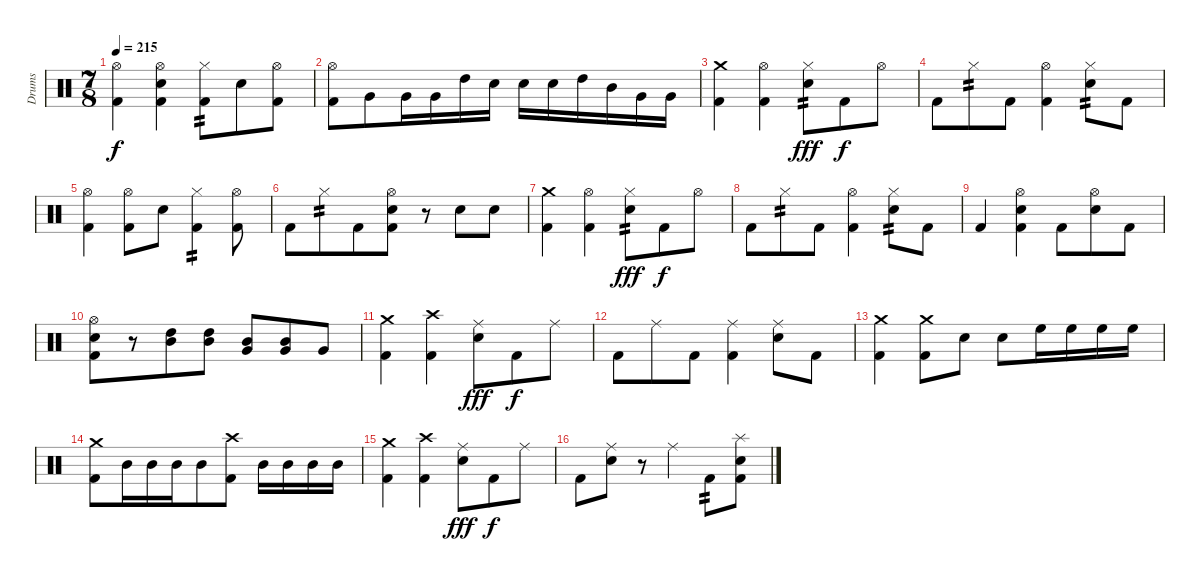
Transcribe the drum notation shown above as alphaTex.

\track ("Drums" "Drums") {instrument percussion}
\staff {score}
\articulation defaults
\ts (7 8)
\tempo 215
\clef neutral
\ks c
("Hi-Hat (open)" "Kick (hit) 2").4{dy f} ("Hi-Hat (open)" "Snare (hit) 2" "Kick (hit) 2").4 ("Hi-Hat (closed)" "Kick (hit) 2").8{tp 2} "Snare (hit) 2".8 ("Hi-Hat (open)" "Kick (hit) 2").8 |
("Hi-Hat (open)" "Kick (hit) 2").8 "Very Low Tom (hit)".8 "Very Low Tom (hit)".16 "Very Low Tom (hit)".16 "High Tom (hit)".16 "Snare (hit) 2".16 "Snare (hit) 2".16 "Snare (hit) 2".16 "High Tom (hit)".16 "Mid Tom (hit)".16 "Very Low Tom (hit)".16 "Very Low Tom (hit)".16 |
("Crash medium (hit)" "Kick (hit) 2").4 ("Hi-Hat (open)" "Kick (hit) 2").4 ("Hi-Hat (closed)" "Snare (hit) 2").8{tp 2 dy fff} "Kick (hit) 2".8{dy f} "Hi-Hat (open)".8 |
"Kick (hit) 2".8 "Hi-Hat (closed)".8{tp 2} "Kick (hit) 2".8 ("Hi-Hat (open)" "Kick (hit) 2").4 ("Hi-Hat (closed)" "Snare (hit) 2").8{tp 2} "Kick (hit) 2".8 |
("Hi-Hat (open)" "Kick (hit) 2").4 ("Hi-Hat (open)" "Kick (hit) 2").8 "Snare (hit) 2".8 ("Hi-Hat (closed)" "Kick (hit) 2").4{tp 2} ("Hi-Hat (open)" "Kick (hit) 2").8 |
"Kick (hit) 2".8 "Hi-Hat (closed)".8{tp 2} "Kick (hit) 2".8 ("Hi-Hat (open)" "Snare (hit) 2" "Kick (hit) 2").8 r.8 "Snare (hit) 2".8 "Snare (hit) 2".8 |
("Crash medium (hit)" "Kick (hit) 2").4 ("Hi-Hat (open)" "Kick (hit) 2").4 ("Hi-Hat (closed)" "Snare (hit) 2").8{tp 2 dy fff} "Kick (hit) 2".8{dy f} "Hi-Hat (open)".8 |
"Kick (hit) 2".8 "Hi-Hat (closed)".8{tp 2} "Kick (hit) 2".8 ("Hi-Hat (open)" "Kick (hit) 2").4 ("Hi-Hat (closed)" "Snare (hit) 2").8{tp 2} "Kick (hit) 2".8 |
"Kick (hit) 2".4 ("Hi-Hat (open)" "Snare (hit) 2" "Kick (hit) 2").4 "Kick (hit) 2".8 ("Hi-Hat (open)" "Snare (hit) 2").8 "Kick (hit) 2".8 |
("Hi-Hat (open)" "Snare (hit) 2" "Kick (hit) 2").8 r.8 ("Mid Tom (hit)" "High Tom (hit)").8 ("Mid Tom (hit)" "High Tom (hit)").8 ("Very Low Tom (hit)" "Mid Tom (hit)").8 ("Very Low Tom (hit)" "Mid Tom (hit)").8 "Very Low Tom (hit)".8 |
("Crash medium (hit)" "Kick (hit) 2").4 ("Crash high (hit)" "Kick (hit) 2").4 ("Ride (middle)" "Snare (hit) 2").8{dy fff} "Kick (hit) 2".8{dy f} "Ride (middle)".8 |
"Kick (hit) 2".8 "Ride (middle)".8 "Kick (hit) 2".8 ("Ride (middle)" "Kick (hit) 2").4 ("Ride (middle)" "Snare (hit) 2").8 "Kick (hit) 2".8 |
("Crash medium (hit)" "Kick (hit) 2").4 ("Crash medium (hit)" "Kick (hit) 2").8 "Snare (hit) 2".8 "Snare (hit) 2".8 "High Floor Tom (hit)".16 "High Floor Tom (hit)".16 "High Floor Tom (hit)".16 "High Floor Tom (hit)".16 |
("Crash medium (hit)" "Kick (hit) 2").8 "Mid Tom (hit)".16 "Mid Tom (hit)".16 "Mid Tom (hit)".16 "Mid Tom (hit)".8 ("Crash high (hit)" "Kick (hit) 2").8 "Mid Tom (hit)".16 "Mid Tom (hit)".16 "Mid Tom (hit)".16 "Mid Tom (hit)".16 |
("Crash medium (hit)" "Kick (hit) 2").4 ("Crash high (hit)" "Kick (hit) 2").4 ("Ride (middle)" "Snare (hit) 2").8{dy fff} "Kick (hit) 2".8{dy f} "Ride (middle)".8 |
"Kick (hit) 2".8 ("Ride (middle)" "Snare (hit) 2").8 r.8 "Ride (middle)".4 "Kick (hit) 2".8{tp 2} ("Splash (hit)" "Snare (hit) 2" "Kick (hit) 2").8
